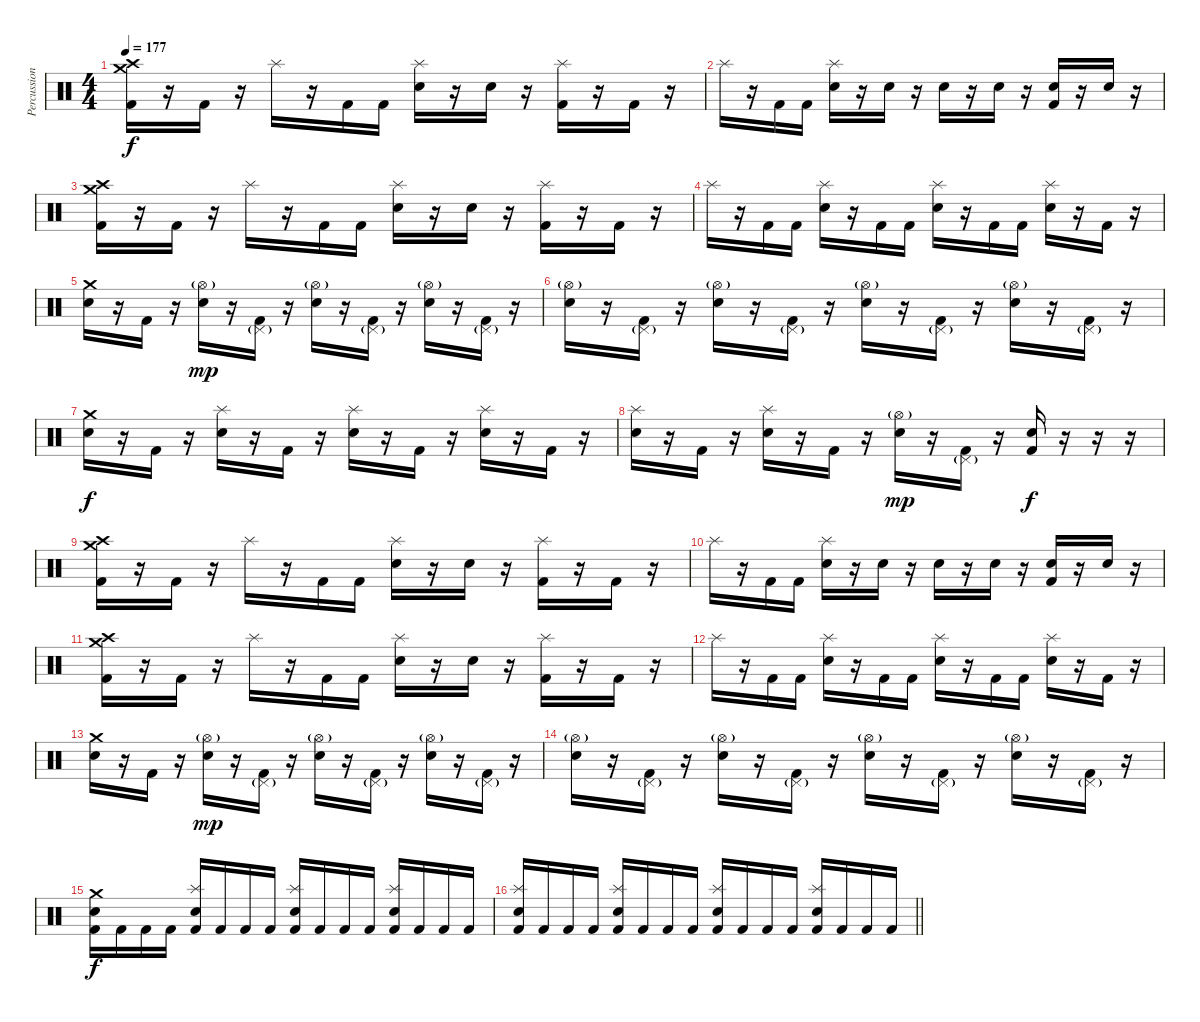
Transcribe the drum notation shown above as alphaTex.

\track ("Percussion" "Percussion") {instrument percussion}
\staff {score}
\articulation defaults
\ts (4 4)
\tempo 177
\clef neutral
\ks c
("Crash medium (hit)" "Crash high (hit)" "Kick (hit) 2").16{dy f} r.16 "Kick (hit) 2".16 r.16 "Splash (hit)".16 r.16 "Kick (hit) 2".16 "Kick (hit) 2".16 ("Splash (hit)" "Electric Snare (hit)").16 r.16 "Electric Snare (hit)".16 r.16 ("Splash (hit)" "Kick (hit) 2").16 r.16 "Kick (hit) 2".16 r.16 |
"Splash (hit)".16 r.16 "Kick (hit) 2".16 "Kick (hit) 2".16 ("Splash (hit)" "Electric Snare (hit)").16 r.16 "Electric Snare (hit)".16 r.16 "Electric Snare (hit)".16 r.16 "Electric Snare (hit)".16 r.16 ("Electric Snare (hit)" "Kick (hit) 2").16 r.16 "Electric Snare (hit)".16 r.16 |
("Crash medium (hit)" "Crash high (hit)" "Kick (hit) 2").16 r.16 "Kick (hit) 2".16 r.16 "Splash (hit)".16 r.16 "Kick (hit) 2".16 "Kick (hit) 2".16 ("Splash (hit)" "Electric Snare (hit)").16 r.16 "Electric Snare (hit)".16 r.16 ("Splash (hit)" "Kick (hit) 2").16 r.16 "Kick (hit) 2".16 r.16 |
"Splash (hit)".16 r.16 "Kick (hit) 2".16 "Kick (hit) 2".16 ("Splash (hit)" "Electric Snare (hit)").16 r.16 "Kick (hit) 2".16 "Kick (hit) 2".16 ("Splash (hit)" "Electric Snare (hit)").16 r.16 "Kick (hit) 2".16 "Kick (hit) 2".16 ("Splash (hit)" "Electric Snare (hit)").16 r.16 "Kick (hit) 2".16 r.16 |
("Crash medium (hit)" "Electric Snare (hit)").16 r.16 "Kick (hit) 2".16 r.16 ("Hi-Hat (open)"{g} "Electric Snare (hit)").16{dy mp} r.16 ("Pedal Hi-Hat (hit)"{g} "Kick (hit) 2").16 r.16 ("Hi-Hat (open)"{g} "Electric Snare (hit)").16 r.16 ("Pedal Hi-Hat (hit)"{g} "Kick (hit) 2").16 r.16 ("Hi-Hat (open)"{g} "Electric Snare (hit)").16 r.16 ("Pedal Hi-Hat (hit)"{g} "Kick (hit) 2").16 r.16 |
("Hi-Hat (open)"{g} "Electric Snare (hit)").16 r.16 ("Pedal Hi-Hat (hit)"{g} "Kick (hit) 2").16 r.16 ("Hi-Hat (open)"{g} "Electric Snare (hit)").16 r.16 ("Pedal Hi-Hat (hit)"{g} "Kick (hit) 2").16 r.16 ("Hi-Hat (open)"{g} "Electric Snare (hit)").16 r.16 ("Pedal Hi-Hat (hit)"{g} "Kick (hit) 2").16 r.16 ("Hi-Hat (open)"{g} "Electric Snare (hit)").16 r.16 ("Pedal Hi-Hat (hit)"{g} "Kick (hit) 2").16 r.16 |
("Crash medium (hit)" "Electric Snare (hit)").16{dy f} r.16 "Kick (hit) 2".16 r.16 ("Splash (hit)" "Electric Snare (hit)").16 r.16 "Kick (hit) 2".16 r.16 ("Splash (hit)" "Electric Snare (hit)").16 r.16 "Kick (hit) 2".16 r.16 ("Splash (hit)" "Electric Snare (hit)").16 r.16 "Kick (hit) 2".16 r.16 |
("Splash (hit)" "Electric Snare (hit)").16 r.16 "Kick (hit) 2".16 r.16 ("Splash (hit)" "Electric Snare (hit)").16 r.16 "Kick (hit) 2".16 r.16 ("Hi-Hat (open)"{g} "Electric Snare (hit)").16{dy mp} r.16 ("Pedal Hi-Hat (hit)"{g} "Kick (hit) 2").16 r.16 ("Electric Snare (hit)" "Kick (hit) 2").16{dy f} r.16 r.16 r.16 |
("Crash medium (hit)" "Crash high (hit)" "Kick (hit) 2").16 r.16 "Kick (hit) 2".16 r.16 "Splash (hit)".16 r.16 "Kick (hit) 2".16 "Kick (hit) 2".16 ("Splash (hit)" "Electric Snare (hit)").16 r.16 "Electric Snare (hit)".16 r.16 ("Splash (hit)" "Kick (hit) 2").16 r.16 "Kick (hit) 2".16 r.16 |
"Splash (hit)".16 r.16 "Kick (hit) 2".16 "Kick (hit) 2".16 ("Splash (hit)" "Electric Snare (hit)").16 r.16 "Electric Snare (hit)".16 r.16 "Electric Snare (hit)".16 r.16 "Electric Snare (hit)".16 r.16 ("Electric Snare (hit)" "Kick (hit) 2").16 r.16 "Electric Snare (hit)".16 r.16 |
("Crash medium (hit)" "Crash high (hit)" "Kick (hit) 2").16 r.16 "Kick (hit) 2".16 r.16 "Splash (hit)".16 r.16 "Kick (hit) 2".16 "Kick (hit) 2".16 ("Splash (hit)" "Electric Snare (hit)").16 r.16 "Electric Snare (hit)".16 r.16 ("Splash (hit)" "Kick (hit) 2").16 r.16 "Kick (hit) 2".16 r.16 |
"Splash (hit)".16 r.16 "Kick (hit) 2".16 "Kick (hit) 2".16 ("Splash (hit)" "Electric Snare (hit)").16 r.16 "Kick (hit) 2".16 "Kick (hit) 2".16 ("Splash (hit)" "Electric Snare (hit)").16 r.16 "Kick (hit) 2".16 "Kick (hit) 2".16 ("Splash (hit)" "Electric Snare (hit)").16 r.16 "Kick (hit) 2".16 r.16 |
("Crash medium (hit)" "Electric Snare (hit)").16 r.16 "Kick (hit) 2".16 r.16 ("Hi-Hat (open)"{g} "Electric Snare (hit)").16{dy mp} r.16 ("Pedal Hi-Hat (hit)"{g} "Kick (hit) 2").16 r.16 ("Hi-Hat (open)"{g} "Electric Snare (hit)").16 r.16 ("Pedal Hi-Hat (hit)"{g} "Kick (hit) 2").16 r.16 ("Hi-Hat (open)"{g} "Electric Snare (hit)").16 r.16 ("Pedal Hi-Hat (hit)"{g} "Kick (hit) 2").16 r.16 |
("Hi-Hat (open)"{g} "Electric Snare (hit)").16 r.16 ("Pedal Hi-Hat (hit)"{g} "Kick (hit) 2").16 r.16 ("Hi-Hat (open)"{g} "Electric Snare (hit)").16 r.16 ("Pedal Hi-Hat (hit)"{g} "Kick (hit) 2").16 r.16 ("Hi-Hat (open)"{g} "Electric Snare (hit)").16 r.16 ("Pedal Hi-Hat (hit)"{g} "Kick (hit) 2").16 r.16 ("Hi-Hat (open)"{g} "Electric Snare (hit)").16 r.16 ("Pedal Hi-Hat (hit)"{g} "Kick (hit) 2").16 r.16 |
("Crash medium (hit)" "Electric Snare (hit)" "Kick (hit) 2").16{dy f} "Kick (hit) 2".16 "Kick (hit) 2".16 "Kick (hit) 2".16 ("Splash (hit)" "Electric Snare (hit)" "Kick (hit) 2").16 "Kick (hit) 2".16 "Kick (hit) 2".16 "Kick (hit) 2".16 ("Splash (hit)" "Electric Snare (hit)" "Kick (hit) 2").16 "Kick (hit) 2".16 "Kick (hit) 2".16 "Kick (hit) 2".16 ("Splash (hit)" "Electric Snare (hit)" "Kick (hit) 2").16 "Kick (hit) 2".16 "Kick (hit) 2".16 "Kick (hit) 2".16 |
\barLineRight lightlight
("Splash (hit)" "Electric Snare (hit)" "Kick (hit) 2").16 "Kick (hit) 2".16 "Kick (hit) 2".16 "Kick (hit) 2".16 ("Splash (hit)" "Electric Snare (hit)" "Kick (hit) 2").16 "Kick (hit) 2".16 "Kick (hit) 2".16 "Kick (hit) 2".16 ("Splash (hit)" "Electric Snare (hit)" "Kick (hit) 2").16 "Kick (hit) 2".16 "Kick (hit) 2".16 "Kick (hit) 2".16 ("Splash (hit)" "Electric Snare (hit)" "Kick (hit) 2").16 "Kick (hit) 2".16 "Kick (hit) 2".16 "Kick (hit) 2".16
